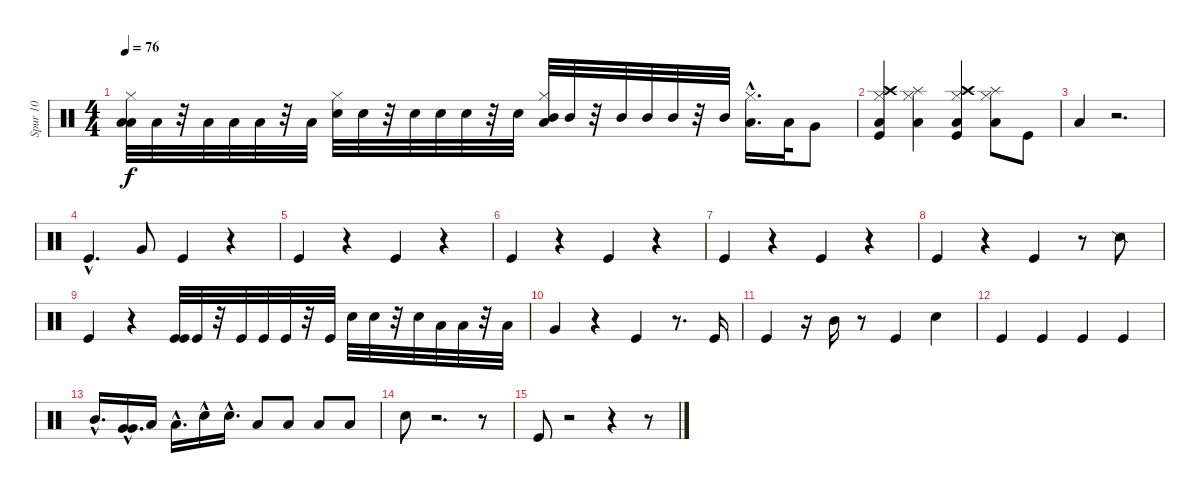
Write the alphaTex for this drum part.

\track ("Spur 10" "Spur 10") {instrument percussion}
\staff {score}
\articulation defaults
\ts (4 4)
\tempo 76
\clef neutral
\ks c
("Low Tom (hit)" "Low Floor Tom (hit)" "Hi-Hat (closed)").32{dy f} "Low Tom (hit)".32 r.32 "Low Tom (hit)".32 "Low Tom (hit)".32 "Low Tom (hit)".32 r.32 "Low Tom (hit)".32 ("Snare (hit) 2" "Hi-Hat (closed)").32 "Snare (hit) 2".32 r.32 "Snare (hit) 2".32 "Snare (hit) 2".32 "Snare (hit) 2".32 r.32 "Snare (hit) 2".32 ("Mid Tom (hit)" "Low Floor Tom (hit)" "Hi-Hat (closed)").32 "Mid Tom (hit)".32 r.32 "Mid Tom (hit)".32 "Mid Tom (hit)".32 "Mid Tom (hit)".32 r.32 "Mid Tom (hit)".32 ("Low Floor Tom (hit)"{hac} "Hi-Hat (closed)").16{d} "Low Floor Tom (hit)".32 "Very Low Tom (hit)".8 |
("Crash high (hit)" "Hi-Hat (closed)" "Kick (hit)" "Low Floor Tom (hit)").4 ("Splash (hit)" "Hi-Hat (closed)" "Low Tom (hit)").4 ("Crash high (hit)" "Hi-Hat (closed)" "Kick (hit)" "Low Floor Tom (hit)").4 ("Splash (hit)" "Hi-Hat (closed)" "Low Tom (hit)").8 "Kick (hit)".8 |
"Low Floor Tom (hit)".4 r.2{d} |
"Kick (hit)"{hac}.4{d} "Very Low Tom (hit)".8 "Kick (hit)".4 r.4 |
"Kick (hit)".4 r.4 "Kick (hit)".4 r.4 |
"Kick (hit)".4 r.4 "Kick (hit)".4 r.4 |
"Kick (hit)".4 r.4 "Kick (hit)".4 r.4 |
"Kick (hit)".4 r.4 "Kick (hit)".4 r.8 "Snare (side stick) 2".8 |
"Kick (hit)".4 r.4 ("Kick (hit)" "Kick (hit)").32 "Kick (hit)".32 r.32 "Kick (hit)".32 "Kick (hit)".32 "Kick (hit)".32 r.32 "Kick (hit)".32 "Snare (hit) 2".32 "Snare (hit) 2".32 r.32 "Snare (hit) 2".32 "Low Floor Tom (hit)".32 "Low Floor Tom (hit)".32 r.32 "Low Floor Tom (hit)".32 |
"Very Low Tom (hit)".4 r.4 "Kick (hit)".4 r.8{d} "Kick (hit)".16 |
"Kick (hit)".4 r.16 "Mid Tom (hit)".16 r.8 "Kick (hit)".4 "Snare (hit) 2".4 |
"Kick (hit)".4 "Kick (hit)".4 "Kick (hit)".4 "Kick (hit)".4 |
"Mid Tom (hit)"{hac}.16{d} ("Very Low Tom (hit)"{hac} "Very Low Tom (hit)"{hac}).16{d} "Low Floor Tom (hit)".16 "Low Floor Tom (hit)"{hac}.16{d} "Snare (hit) 2"{hac}.16 "Snare (hit) 2"{hac}.16{d} "Low Floor Tom (hit)".8 "Low Floor Tom (hit)".8 "Low Floor Tom (hit)".8 "Low Floor Tom (hit)".8 |
"Snare (hit) 2".8 r.2{d} r.8 |
"Kick (hit)".8 r.2 r.4 r.8
